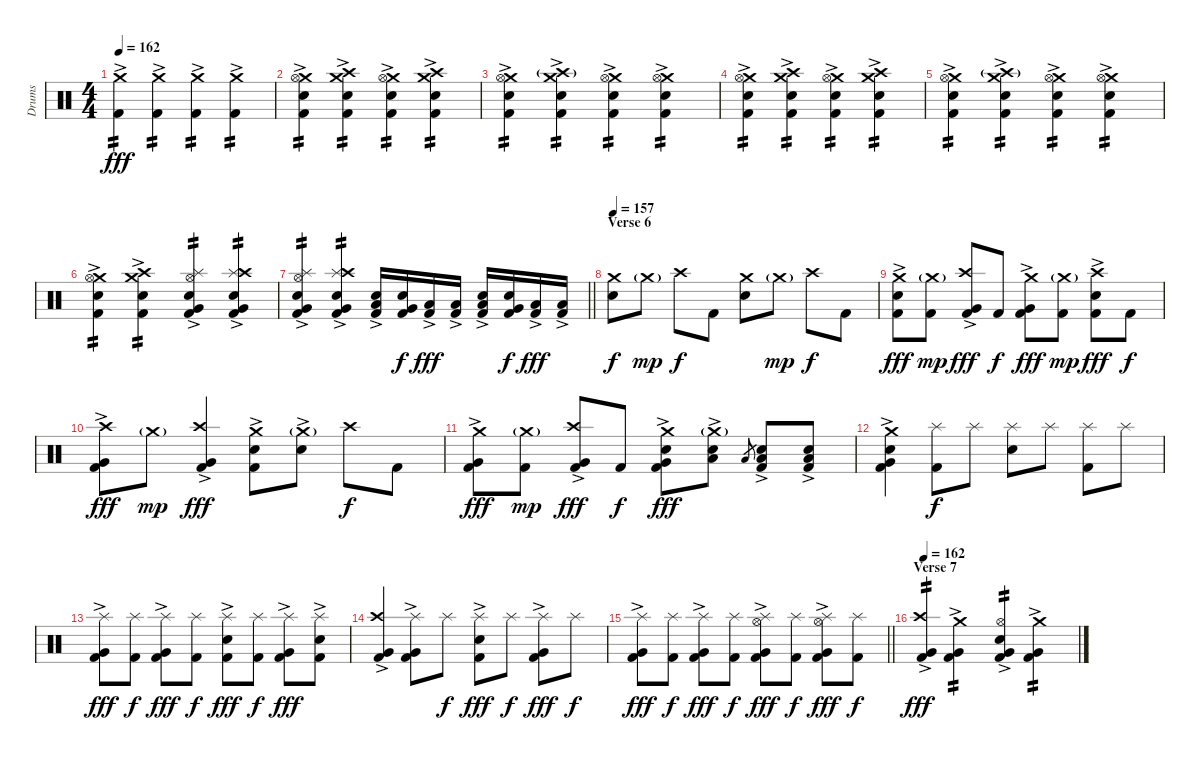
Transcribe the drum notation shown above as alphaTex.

\track ("Drums" "Drums") {instrument percussion}
\staff {score}
\articulation defaults
\ts (4 4)
\tempo 162
\clef neutral
\ks c
("Crash medium (hit)" "Kick (hit) 2"{ac}).4{tp 2 dy fff} ("Crash medium (hit)" "Kick (hit) 2"{ac}).4{tp 2} ("Crash medium (hit)" "Kick (hit) 2"{ac}).4{tp 2} ("Crash medium (hit)" "Kick (hit) 2"{ac}).4{tp 2} |
("Crash medium (hit)" "Hi-Hat (open)" "Electric Snare (hit)" "Kick (hit) 2"{ac}).4{tp 2} ("Crash medium (hit)" "Crash high (hit)" "Electric Snare (hit)" "Kick (hit) 2"{ac}).4{tp 2} ("Crash medium (hit)" "Hi-Hat (open)" "Electric Snare (hit)" "Kick (hit) 2"{ac}).4{tp 2} ("Crash medium (hit)" "Crash high (hit)" "Electric Snare (hit)" "Kick (hit) 2"{ac}).4{tp 2} |
("Crash medium (hit)" "Hi-Hat (open)" "Electric Snare (hit)" "Kick (hit) 2"{ac}).4{tp 2} ("Crash medium (hit)" "Crash high (hit)"{g} "Electric Snare (hit)" "Kick (hit) 2"{ac}).4{tp 2} ("Crash medium (hit)" "Hi-Hat (open)" "Electric Snare (hit)" "Kick (hit) 2"{ac}).4{tp 2} ("Crash medium (hit)" "Hi-Hat (open)" "Electric Snare (hit)" "Kick (hit) 2"{ac}).4{tp 2} |
("Crash medium (hit)" "Hi-Hat (open)" "Electric Snare (hit)" "Kick (hit) 2"{ac}).4{tp 2} ("Crash medium (hit)" "Crash high (hit)" "Electric Snare (hit)" "Kick (hit) 2"{ac}).4{tp 2} ("Crash medium (hit)" "Hi-Hat (open)" "Electric Snare (hit)" "Kick (hit) 2"{ac}).4{tp 2} ("Crash medium (hit)" "Crash high (hit)" "Electric Snare (hit)" "Kick (hit) 2"{ac}).4{tp 2} |
("Crash medium (hit)" "Hi-Hat (open)" "Electric Snare (hit)" "Kick (hit) 2"{ac}).4{tp 2} ("Crash medium (hit)" "Crash high (hit)"{g} "Electric Snare (hit)" "Kick (hit) 2"{ac}).4{tp 2} ("Crash medium (hit)" "Hi-Hat (open)" "Electric Snare (hit)" "Kick (hit) 2"{ac}).4{tp 2} ("Crash medium (hit)" "Hi-Hat (open)" "Electric Snare (hit)" "Kick (hit) 2"{ac}).4{tp 2} |
("Crash medium (hit)" "Hi-Hat (open)" "Electric Snare (hit)" "Kick (hit) 2"{ac}).4{tp 2} ("Crash medium (hit)" "Crash high (hit)" "Electric Snare (hit)" "Kick (hit) 2"{ac}).4{tp 2} ("Splash (hit)" "Hi-Hat (open)" "Electric Snare (hit)" "Very Low Tom (hit)"{ac} "Kick (hit) 2"{ac}).4{tp 2} ("Splash (hit)" "Crash high (hit)" "Electric Snare (hit)" "Very Low Tom (hit)"{ac} "Kick (hit) 2"{ac}).4{tp 2} |
\barLineRight lightlight
("Splash (hit)" "Hi-Hat (open)" "Electric Snare (hit)" "Very Low Tom (hit)"{ac} "Kick (hit) 2"{ac}).4{tp 2} ("Splash (hit)" "Crash high (hit)" "Electric Snare (hit)" "Very Low Tom (hit)"{ac} "Kick (hit) 2"{ac}).4{tp 2} ("Electric Snare (hit)" "Low Floor Tom (hit)"{ac} "Kick (hit) 2").16 ("Electric Snare (hit)" "Very Low Tom (hit)" "Kick (hit) 2").16{dy f} ("Low Floor Tom (hit)"{ac} "Kick (hit) 2").16{dy fff} ("Low Floor Tom (hit)"{ac} "Kick (hit) 2").16 ("Electric Snare (hit)" "Low Floor Tom (hit)"{ac} "Kick (hit) 2").16 ("Electric Snare (hit)" "Very Low Tom (hit)" "Kick (hit) 2").16{dy f} ("Low Floor Tom (hit)"{ac} "Kick (hit) 2").16{dy fff} ("Low Floor Tom (hit)"{ac} "Kick (hit) 2").16 |
\section ("" "Verse 6")
\tempo 157
("Crash medium (hit)" "Electric Snare (hit)").8{dy f} "Crash medium (hit)"{g}.8{dy mp} "Crash high (hit)".8{dy f} "Kick (hit) 2".8 ("Crash medium (hit)" "Electric Snare (hit)").8 "Crash medium (hit)"{g}.8{dy mp} "Crash high (hit)".8{dy f} "Kick (hit) 2".8 |
("Crash medium (hit)" "Electric Snare (hit)"{ac} "Kick (hit) 2").8{dy fff} ("Crash medium (hit)"{g} "Kick (hit) 2").8{dy mp} ("Crash high (hit)" "Very Low Tom (hit)"{ac} "Kick (hit) 2").8{dy fff} "Kick (hit) 2".8{dy f} ("Crash medium (hit)" "Very Low Tom (hit)"{ac} "Kick (hit) 2").8{dy fff} ("Crash medium (hit)"{g} "Kick (hit) 2").8{dy mp} ("Crash high (hit)" "Electric Snare (hit)"{ac} "Kick (hit) 2").8{dy fff} "Kick (hit) 2".8{dy f} |
("Crash high (hit)" "Very Low Tom (hit)"{ac} "Kick (hit) 2").8{dy fff} "Crash medium (hit)"{g}.8{dy mp} ("Crash high (hit)" "Very Low Tom (hit)"{ac} "Kick (hit) 2").4{dy fff} ("Crash medium (hit)" "Electric Snare (hit)"{ac} "Kick (hit) 2").8 ("Crash medium (hit)"{g} "Electric Snare (hit)"{ac}).8 "Crash high (hit)".8{dy f} "Kick (hit) 2".8 |
("Crash medium (hit)" "Very Low Tom (hit)"{ac} "Kick (hit) 2").8{dy fff} ("Crash medium (hit)"{g} "Kick (hit) 2").8{dy mp} ("Crash high (hit)" "Very Low Tom (hit)"{ac} "Kick (hit) 2").8{dy fff} "Kick (hit) 2".8{dy f} ("Crash medium (hit)" "Electric Snare (hit)" "Very Low Tom (hit)"{ac} "Kick (hit) 2").8{dy fff} ("Crash medium (hit)"{g} "Electric Snare (hit)" "Low Floor Tom (hit)"{ac}).8 "Low Floor Tom (hit)".8{gr} ("Electric Snare (hit)" "Low Floor Tom (hit)"{ac} "Kick (hit) 2").8 ("Electric Snare (hit)" "Low Floor Tom (hit)"{ac} "Kick (hit) 2").8 |
("Crash medium (hit)"{ac} "Electric Snare (hit)" "Very Low Tom (hit)"{ac} "Kick (hit) 2").4 ("Splash (hit)" "Kick (hit) 2").8{dy f} "Splash (hit)".8 ("Splash (hit)" "Electric Snare (hit)").8 "Splash (hit)".8 ("Splash (hit)" "Kick (hit) 2").8 "Splash (hit)".8 |
("Splash (hit)" "Very Low Tom (hit)"{ac} "Kick (hit) 2").8{dy fff} ("Splash (hit)" "Kick (hit) 2").8{dy f} ("Splash (hit)" "Very Low Tom (hit)"{ac} "Kick (hit) 2").8{dy fff} ("Splash (hit)" "Kick (hit) 2").8{dy f} ("Splash (hit)" "Electric Snare (hit)"{ac} "Kick (hit) 2").8{dy fff} ("Splash (hit)" "Kick (hit) 2").8{dy f} ("Splash (hit)" "Very Low Tom (hit)"{ac} "Kick (hit) 2").8{dy fff} ("Splash (hit)" "Electric Snare (hit)"{ac} "Kick (hit) 2").8 |
("Crash high (hit)" "Very Low Tom (hit)"{ac} "Kick (hit) 2").4 ("Splash (hit)" "Very Low Tom (hit)"{ac} "Kick (hit) 2").8 "Splash (hit)".8{dy f} ("Splash (hit)" "Electric Snare (hit)"{ac} "Kick (hit) 2").8{dy fff} "Splash (hit)".8{dy f} ("Splash (hit)" "Very Low Tom (hit)"{ac} "Kick (hit) 2").8{dy fff} "Splash (hit)".8{dy f} |
\barLineRight lightlight
("Splash (hit)" "Very Low Tom (hit)"{ac} "Kick (hit) 2").8{dy fff} ("Splash (hit)" "Kick (hit) 2").8{dy f} ("Splash (hit)" "Very Low Tom (hit)"{ac} "Kick (hit) 2").8{dy fff} ("Splash (hit)" "Kick (hit) 2").8{dy f} ("Splash (hit)" "Hi-Hat (open)" "Very Low Tom (hit)"{ac} "Kick (hit) 2").8{dy fff} ("Splash (hit)" "Kick (hit) 2").8{dy f} ("Splash (hit)" "Hi-Hat (open)" "Very Low Tom (hit)"{ac} "Kick (hit) 2").8{dy fff} ("Splash (hit)" "Kick (hit) 2").8{dy f} |
\section ("" "Verse 7")
\tempo 162
("Crash high (hit)" "Very Low Tom (hit)" "Kick (hit) 2"{ac}).4{tp 2 dy fff} ("Crash medium (hit)" "Very Low Tom (hit)" "Kick (hit) 2"{ac}).4{tp 2} ("Hi-Hat (open)" "Electric Snare (hit)" "Very Low Tom (hit)" "Kick (hit) 2"{ac}).4{tp 2} ("Crash medium (hit)" "Very Low Tom (hit)" "Kick (hit) 2"{ac}).4{tp 2}
